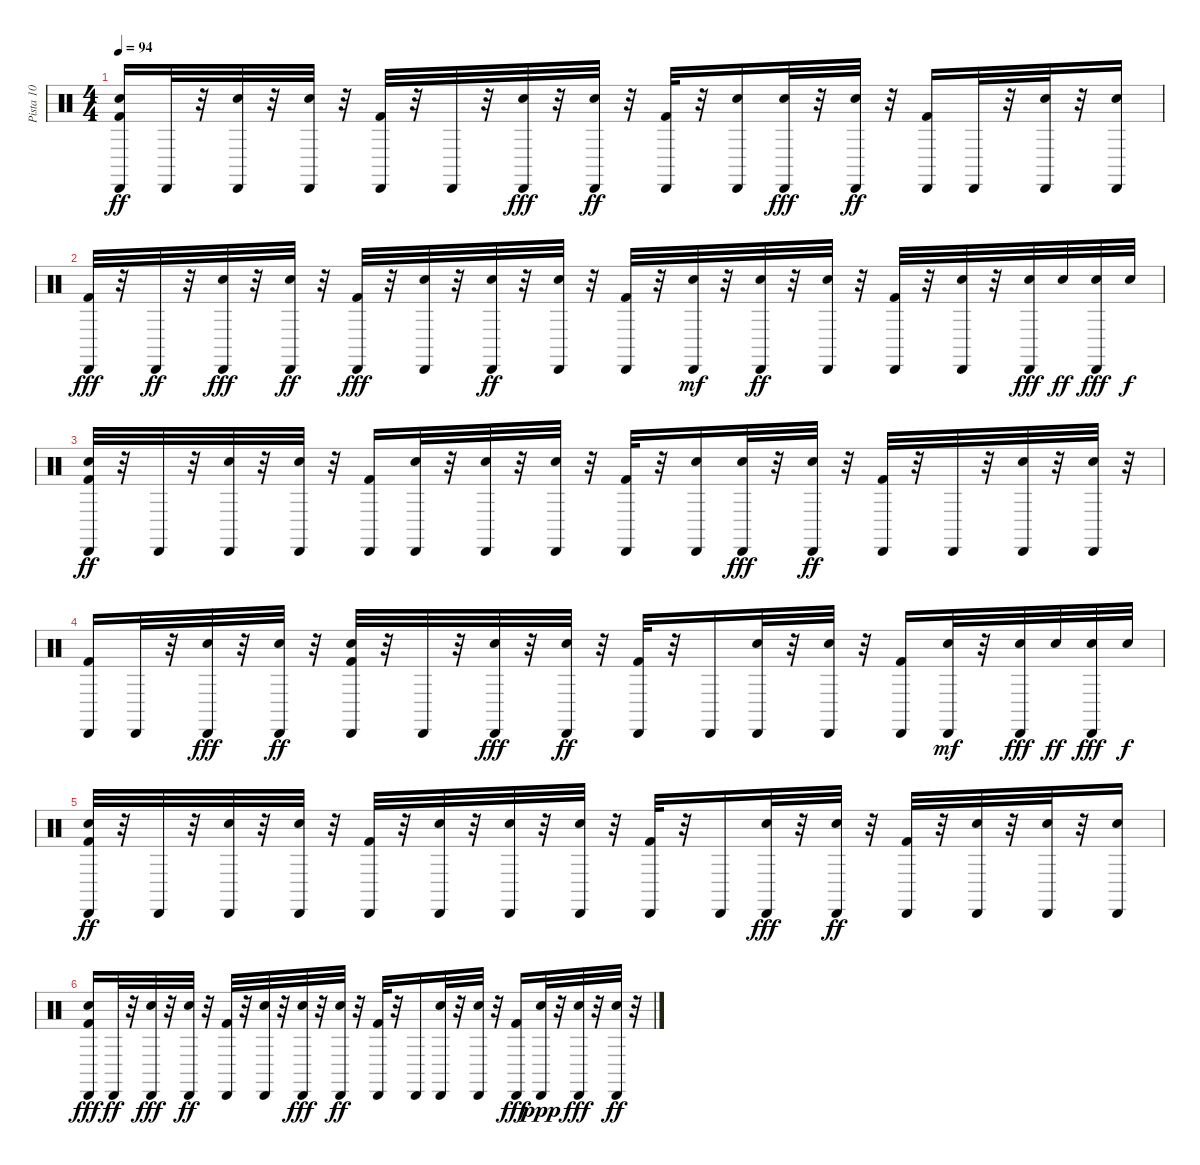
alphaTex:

\track ("Pista 10" "Pista 10") {instrument percussion}
\staff {score}
\articulation defaults
\ts (4 4)
\tempo 94
\clef neutral
\ks c
("Cabasa (hit)" "Snare (hit) 2" "Kick (hit) 2").16{dy ff} "Cabasa (hit)".32 r.32 ("Snare (hit) 2" "Cabasa (hit)").32 r.32 ("Electric Snare (hit)" "Cabasa (hit)").32 r.32 ("Cabasa (hit)" "Kick (hit) 2").32 r.32 "Cabasa (hit)".32 r.32 ("Cabasa (hit)" "Snare (hit) 2").32{dy fff} r.32 ("Electric Snare (hit)" "Cabasa (hit)").32{dy ff} r.32 ("Kick (hit) 2" "Cabasa (hit)").32 r.32 ("Electric Snare (hit)" "Cabasa (hit)").16 ("Cabasa (hit)" "Snare (hit) 2").32{dy fff} r.32 ("Cabasa (hit)" "Electric Snare (hit)").32{dy ff} r.32 ("Cabasa (hit)" "Kick (hit) 2").16 "Cabasa (hit)".32 r.32 ("Snare (hit) 2" "Cabasa (hit)").32 r.32 ("Electric Snare (hit)" "Cabasa (hit)").16 |
("Cabasa (hit)" "Kick (hit) 2").32{dy fff} r.32 "Cabasa (hit)".32{dy ff} r.32 ("Cabasa (hit)" "Snare (hit) 2").32{dy fff} r.32 ("Electric Snare (hit)" "Cabasa (hit)").32{dy ff} r.32 ("Kick (hit) 2" "Cabasa (hit)").32{dy fff} r.32 ("Electric Snare (hit)" "Cabasa (hit)").32 r.32 ("Snare (hit) 2" "Cabasa (hit)").32{dy ff} r.32 ("Cabasa (hit)" "Electric Snare (hit)").32 r.32 ("Cabasa (hit)" "Kick (hit) 2").32 r.32 ("Cabasa (hit)" "Electric Snare (hit)").32{dy mf} r.32 ("Snare (hit) 2" "Cabasa (hit)").32{dy ff} r.32 ("Electric Snare (hit)" "Cabasa (hit)").32 r.32 ("Kick (hit) 2" "Cabasa (hit)").32 r.32 ("Cabasa (hit)" "Electric Snare (hit)").32 r.32 ("Cabasa (hit)" "Snare (hit) 2").32{dy fff} "Electric Snare (hit)".32{dy ff} ("Cabasa (hit)" "Snare (hit) 2").32{dy fff} "Electric Snare (hit)".32{dy f} |
("Kick (hit) 2" "Snare (hit) 2" "Cabasa (hit)").32{dy ff} r.32 "Cabasa (hit)".32 r.32 ("Snare (hit) 2" "Cabasa (hit)").32 r.32 ("Cabasa (hit)" "Electric Snare (hit)").32 r.32 ("Cabasa (hit)" "Kick (hit) 2").16 ("Cabasa (hit)" "Electric Snare (hit)").32 r.32 ("Snare (hit) 2" "Cabasa (hit)").32 r.32 ("Electric Snare (hit)" "Cabasa (hit)").32 r.32 ("Kick (hit) 2" "Cabasa (hit)").32 r.32 ("Electric Snare (hit)" "Cabasa (hit)").16 ("Cabasa (hit)" "Snare (hit) 2").32{dy fff} r.32 ("Cabasa (hit)" "Electric Snare (hit)").32{dy ff} r.32 ("Cabasa (hit)" "Kick (hit) 2").32 r.32 "Cabasa (hit)".32 r.32 ("Snare (hit) 2" "Cabasa (hit)").32 r.32 ("Electric Snare (hit)" "Cabasa (hit)").32 r.32 |
("Cabasa (hit)" "Kick (hit) 2").16 "Cabasa (hit)".32 r.32 ("Cabasa (hit)" "Snare (hit) 2").32{dy fff} r.32 ("Electric Snare (hit)" "Cabasa (hit)").32{dy ff} r.32 ("Kick (hit) 2" "Snare (hit) 2" "Cabasa (hit)").32 r.32 "Cabasa (hit)".32 r.32 ("Cabasa (hit)" "Snare (hit) 2").32{dy fff} r.32 ("Cabasa (hit)" "Electric Snare (hit)").32{dy ff} r.32 ("Cabasa (hit)" "Kick (hit) 2").32 r.32 "Cabasa (hit)".16 ("Snare (hit) 2" "Cabasa (hit)").32 r.32 ("Electric Snare (hit)" "Cabasa (hit)").32 r.32 ("Cabasa (hit)" "Kick (hit) 2").16 ("Cabasa (hit)" "Electric Snare (hit)").32{dy mf} r.32 ("Cabasa (hit)" "Snare (hit) 2").32{dy fff} "Electric Snare (hit)".32{dy ff} ("Cabasa (hit)" "Snare (hit) 2").32{dy fff} "Electric Snare (hit)".32{dy f} |
("Kick (hit) 2" "Snare (hit) 2" "Cabasa (hit)").32{dy ff} r.32 "Cabasa (hit)".32 r.32 ("Snare (hit) 2" "Cabasa (hit)").32 r.32 ("Cabasa (hit)" "Electric Snare (hit)").32 r.32 ("Cabasa (hit)" "Kick (hit) 2").32 r.32 ("Cabasa (hit)" "Electric Snare (hit)").32 r.32 ("Snare (hit) 2" "Cabasa (hit)").32 r.32 ("Electric Snare (hit)" "Cabasa (hit)").32 r.32 ("Kick (hit) 2" "Cabasa (hit)").32 r.32 "Cabasa (hit)".16 ("Cabasa (hit)" "Snare (hit) 2").32{dy fff} r.32 ("Cabasa (hit)" "Electric Snare (hit)").32{dy ff} r.32 ("Kick (hit) 2" "Cabasa (hit)").32 r.32 ("Electric Snare (hit)" "Cabasa (hit)").32 r.32 ("Snare (hit) 2" "Cabasa (hit)").32 r.32 ("Cabasa (hit)" "Electric Snare (hit)").16 |
("Cabasa (hit)" "Snare (hit) 2" "Kick (hit) 2").16{dy fff} "Cabasa (hit)".32{dy ff} r.32 ("Cabasa (hit)" "Snare (hit) 2").32{dy fff} r.32 ("Electric Snare (hit)" "Cabasa (hit)").32{dy ff} r.32 ("Kick (hit) 2" "Cabasa (hit)").32 r.32 ("Electric Snare (hit)" "Cabasa (hit)").32 r.32 ("Cabasa (hit)" "Snare (hit) 2").32{dy fff} r.32 ("Cabasa (hit)" "Electric Snare (hit)").32{dy ff} r.32 ("Cabasa (hit)" "Kick (hit) 2").32 r.32 "Cabasa (hit)".16 ("Snare (hit) 2" "Cabasa (hit)").32 r.32 ("Electric Snare (hit)" "Cabasa (hit)").32 r.32 ("Cabasa (hit)" "Kick (hit) 2").16{dy fff} ("Cabasa (hit)" "Electric Snare (hit)").32{dy ppp} r.32 ("Cabasa (hit)" "Snare (hit) 2").32{dy fff} r.32 ("Electric Snare (hit)" "Cabasa (hit)").32{dy ff} r.32
